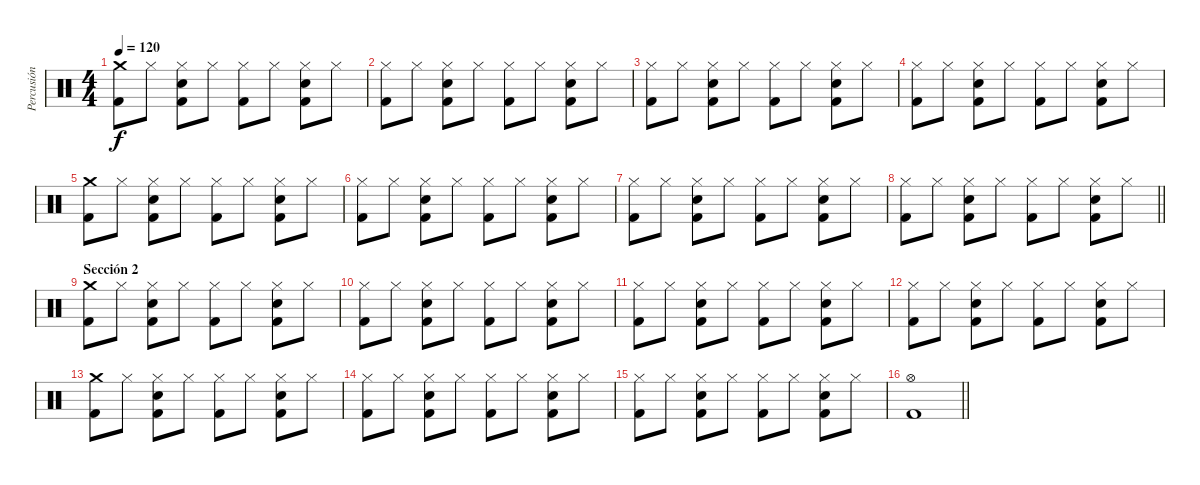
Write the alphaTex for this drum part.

\track ("Percusión" "Percusión") {instrument percussion}
\staff {score}
\articulation defaults
\ts (4 4)
\tempo 120
\clef neutral
\ks c
("Kick (hit) 2" "Crash medium (hit)").8{dy f} "Hi-Hat (closed)".8 ("Kick (hit) 2" "Hi-Hat (closed)" "Electric Snare (hit)").8 "Hi-Hat (closed)".8 ("Kick (hit) 2" "Hi-Hat (closed)").8 "Hi-Hat (closed)".8 ("Kick (hit) 2" "Hi-Hat (closed)" "Electric Snare (hit)").8 "Hi-Hat (closed)".8 |
("Kick (hit) 2" "Hi-Hat (closed)").8 "Hi-Hat (closed)".8 ("Kick (hit) 2" "Hi-Hat (closed)" "Electric Snare (hit)").8 "Hi-Hat (closed)".8 ("Kick (hit) 2" "Hi-Hat (closed)").8 "Hi-Hat (closed)".8 ("Kick (hit) 2" "Hi-Hat (closed)" "Electric Snare (hit)").8 "Hi-Hat (closed)".8 |
("Kick (hit) 2" "Hi-Hat (closed)").8 "Hi-Hat (closed)".8 ("Kick (hit) 2" "Hi-Hat (closed)" "Electric Snare (hit)").8 "Hi-Hat (closed)".8 ("Kick (hit) 2" "Hi-Hat (closed)").8 "Hi-Hat (closed)".8 ("Kick (hit) 2" "Hi-Hat (closed)" "Electric Snare (hit)").8 "Hi-Hat (closed)".8 |
("Kick (hit) 2" "Hi-Hat (closed)").8 "Hi-Hat (closed)".8 ("Kick (hit) 2" "Hi-Hat (closed)" "Electric Snare (hit)").8 "Hi-Hat (closed)".8 ("Kick (hit) 2" "Hi-Hat (closed)").8 "Hi-Hat (closed)".8 ("Kick (hit) 2" "Hi-Hat (closed)" "Electric Snare (hit)").8 "Hi-Hat (closed)".8 |
("Kick (hit) 2" "Crash medium (hit)").8 "Hi-Hat (closed)".8 ("Kick (hit) 2" "Hi-Hat (closed)" "Electric Snare (hit)").8 "Hi-Hat (closed)".8 ("Kick (hit) 2" "Hi-Hat (closed)").8 "Hi-Hat (closed)".8 ("Kick (hit) 2" "Hi-Hat (closed)" "Electric Snare (hit)").8 "Hi-Hat (closed)".8 |
("Kick (hit) 2" "Hi-Hat (closed)").8 "Hi-Hat (closed)".8 ("Kick (hit) 2" "Hi-Hat (closed)" "Electric Snare (hit)").8 "Hi-Hat (closed)".8 ("Kick (hit) 2" "Hi-Hat (closed)").8 "Hi-Hat (closed)".8 ("Kick (hit) 2" "Hi-Hat (closed)" "Electric Snare (hit)").8 "Hi-Hat (closed)".8 |
("Kick (hit) 2" "Hi-Hat (closed)").8 "Hi-Hat (closed)".8 ("Kick (hit) 2" "Hi-Hat (closed)" "Electric Snare (hit)").8 "Hi-Hat (closed)".8 ("Kick (hit) 2" "Hi-Hat (closed)").8 "Hi-Hat (closed)".8 ("Kick (hit) 2" "Hi-Hat (closed)" "Electric Snare (hit)").8 "Hi-Hat (closed)".8 |
\barLineRight lightlight
("Kick (hit) 2" "Hi-Hat (closed)").8 "Hi-Hat (closed)".8 ("Kick (hit) 2" "Hi-Hat (closed)" "Electric Snare (hit)").8 "Hi-Hat (closed)".8 ("Kick (hit) 2" "Hi-Hat (closed)").8 "Hi-Hat (closed)".8 ("Kick (hit) 2" "Hi-Hat (closed)" "Electric Snare (hit)").8 "Hi-Hat (closed)".8 |
\section ("" "Sección 2")
("Kick (hit) 2" "Crash medium (hit)").8 "Hi-Hat (closed)".8 ("Kick (hit) 2" "Hi-Hat (closed)" "Electric Snare (hit)").8 "Hi-Hat (closed)".8 ("Kick (hit) 2" "Hi-Hat (closed)").8 "Hi-Hat (closed)".8 ("Kick (hit) 2" "Hi-Hat (closed)" "Electric Snare (hit)").8 "Hi-Hat (closed)".8 |
("Kick (hit) 2" "Hi-Hat (closed)").8 "Hi-Hat (closed)".8 ("Kick (hit) 2" "Hi-Hat (closed)" "Electric Snare (hit)").8 "Hi-Hat (closed)".8 ("Kick (hit) 2" "Hi-Hat (closed)").8 "Hi-Hat (closed)".8 ("Kick (hit) 2" "Hi-Hat (closed)" "Electric Snare (hit)").8 "Hi-Hat (closed)".8 |
("Kick (hit) 2" "Hi-Hat (closed)").8 "Hi-Hat (closed)".8 ("Kick (hit) 2" "Hi-Hat (closed)" "Electric Snare (hit)").8 "Hi-Hat (closed)".8 ("Kick (hit) 2" "Hi-Hat (closed)").8 "Hi-Hat (closed)".8 ("Kick (hit) 2" "Hi-Hat (closed)" "Electric Snare (hit)").8 "Hi-Hat (closed)".8 |
("Kick (hit) 2" "Hi-Hat (closed)").8 "Hi-Hat (closed)".8 ("Kick (hit) 2" "Hi-Hat (closed)" "Electric Snare (hit)").8 "Hi-Hat (closed)".8 ("Kick (hit) 2" "Hi-Hat (closed)").8 "Hi-Hat (closed)".8 ("Kick (hit) 2" "Hi-Hat (closed)" "Electric Snare (hit)").8 "Hi-Hat (closed)".8 |
("Kick (hit) 2" "Crash medium (hit)").8 "Hi-Hat (closed)".8 ("Kick (hit) 2" "Hi-Hat (closed)" "Electric Snare (hit)").8 "Hi-Hat (closed)".8 ("Kick (hit) 2" "Hi-Hat (closed)").8 "Hi-Hat (closed)".8 ("Kick (hit) 2" "Hi-Hat (closed)" "Electric Snare (hit)").8 "Hi-Hat (closed)".8 |
("Kick (hit) 2" "Hi-Hat (closed)").8 "Hi-Hat (closed)".8 ("Kick (hit) 2" "Hi-Hat (closed)" "Electric Snare (hit)").8 "Hi-Hat (closed)".8 ("Kick (hit) 2" "Hi-Hat (closed)").8 "Hi-Hat (closed)".8 ("Kick (hit) 2" "Hi-Hat (closed)" "Electric Snare (hit)").8 "Hi-Hat (closed)".8 |
("Kick (hit) 2" "Hi-Hat (closed)").8 "Hi-Hat (closed)".8 ("Kick (hit) 2" "Hi-Hat (closed)" "Electric Snare (hit)").8 "Hi-Hat (closed)".8 ("Kick (hit) 2" "Hi-Hat (closed)").8 "Hi-Hat (closed)".8 ("Kick (hit) 2" "Hi-Hat (closed)" "Electric Snare (hit)").8 "Hi-Hat (closed)".8 |
\barLineRight lightlight
("Kick (hit) 2" "Hi-Hat (open)").1
